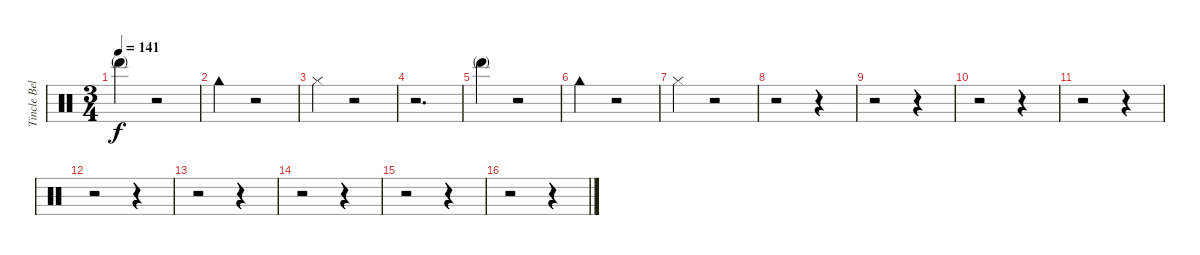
\track ("Tincle Bell" "Tincle Bel") {instrument percussion}
\staff {score}
\articulation defaults
\ts (3 4)
\tempo 141
\clef neutral
\ks c "Hand (mute)".4{dy f}
r.2 |
"Cowbell high (hit)".4 r.2 |
"Cowbell high (tip)".4 r.2 |
r.2{d} |
"Hand (mute)".4 r.2 |
"Cowbell high (hit)".4 r.2 |
"Cowbell high (tip)".4 r.2 |
r.2 r.4 |
r.2 r.4 |
r.2 r.4 |
r.2 r.4 |
r.2 r.4 |
r.2 r.4 |
r.2 r.4 |
r.2 r.4 |
r.2 r.4
